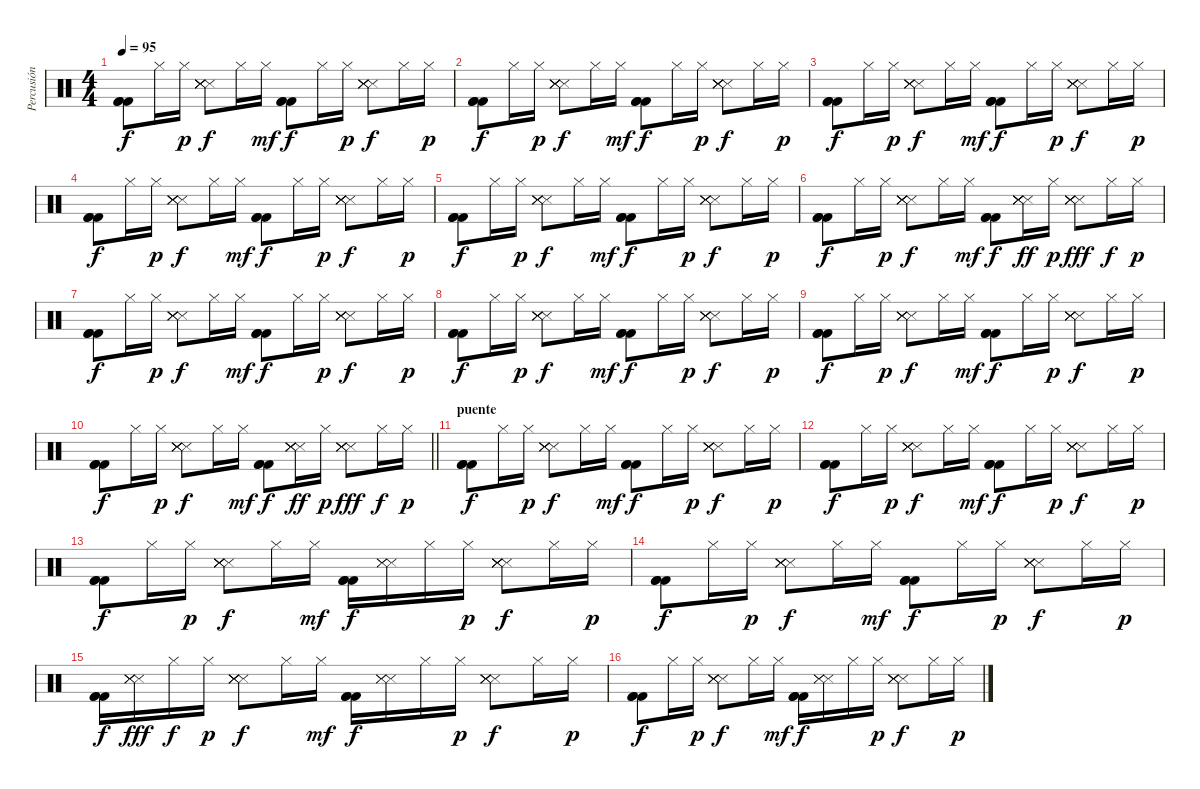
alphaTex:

\track ("Percusión" "Percusión") {instrument percussion}
\staff
\articulation defaults
\ts (4 4)
\tempo 95
\clef neutral
\ks c
("Kick (hit) 2" "Kick (hit) 2" "Kick (hit) 2").8{dy f} "Hi-Hat (closed)".16 "Hi-Hat (closed)".16{dy p} ("Metronome (hit)" "Metronome (hit)" "Metronome (hit)" "Metronome (hit)" "Metronome (hit)").8{dy f} "Hi-Hat (closed)".16 "Hi-Hat (closed)".16{dy mf} ("Kick (hit) 2" "Kick (hit) 2" "Kick (hit) 2").8{dy f} "Hi-Hat (closed)".16 "Hi-Hat (closed)".16{dy p} ("Metronome (hit)" "Metronome (hit)" "Metronome (hit)" "Metronome (hit)" "Metronome (hit)").8{dy f} "Hi-Hat (closed)".16 "Hi-Hat (closed)".16{dy p} |
("Kick (hit) 2" "Kick (hit) 2" "Kick (hit) 2").8{dy f} "Hi-Hat (closed)".16 "Hi-Hat (closed)".16{dy p} ("Metronome (hit)" "Metronome (hit)" "Metronome (hit)" "Metronome (hit)" "Metronome (hit)").8{dy f} "Hi-Hat (closed)".16 "Hi-Hat (closed)".16{dy mf} ("Kick (hit) 2" "Kick (hit) 2" "Kick (hit) 2").8{dy f} "Hi-Hat (closed)".16 "Hi-Hat (closed)".16{dy p} ("Metronome (hit)" "Metronome (hit)" "Metronome (hit)" "Metronome (hit)" "Metronome (hit)").8{dy f} "Hi-Hat (closed)".16 "Hi-Hat (closed)".16{dy p} |
("Kick (hit) 2" "Kick (hit) 2" "Kick (hit) 2").8{dy f} "Hi-Hat (closed)".16 "Hi-Hat (closed)".16{dy p} ("Metronome (hit)" "Metronome (hit)" "Metronome (hit)" "Metronome (hit)" "Metronome (hit)").8{dy f} "Hi-Hat (closed)".16 "Hi-Hat (closed)".16{dy mf} ("Kick (hit) 2" "Kick (hit) 2" "Kick (hit) 2").8{dy f} "Hi-Hat (closed)".16 "Hi-Hat (closed)".16{dy p} ("Metronome (hit)" "Metronome (hit)" "Metronome (hit)" "Metronome (hit)" "Metronome (hit)").8{dy f} "Hi-Hat (closed)".16 "Hi-Hat (closed)".16{dy p} |
("Kick (hit) 2" "Kick (hit) 2" "Kick (hit) 2").8{dy f} "Hi-Hat (closed)".16 "Hi-Hat (closed)".16{dy p} ("Metronome (hit)" "Metronome (hit)" "Metronome (hit)" "Metronome (hit)" "Metronome (hit)").8{dy f} "Hi-Hat (closed)".16 "Hi-Hat (closed)".16{dy mf} ("Kick (hit) 2" "Kick (hit) 2" "Kick (hit) 2").8{dy f} "Hi-Hat (closed)".16 "Hi-Hat (closed)".16{dy p} ("Metronome (hit)" "Metronome (hit)" "Metronome (hit)" "Metronome (hit)" "Metronome (hit)").8{dy f} "Hi-Hat (closed)".16 "Hi-Hat (closed)".16{dy p} |
("Kick (hit) 2" "Kick (hit) 2" "Kick (hit) 2").8{dy f} "Hi-Hat (closed)".16 "Hi-Hat (closed)".16{dy p} ("Metronome (hit)" "Metronome (hit)" "Metronome (hit)" "Metronome (hit)" "Metronome (hit)").8{dy f} "Hi-Hat (closed)".16 "Hi-Hat (closed)".16{dy mf} ("Kick (hit) 2" "Kick (hit) 2" "Kick (hit) 2").8{dy f} "Hi-Hat (closed)".16 "Hi-Hat (closed)".16{dy p} ("Metronome (hit)" "Metronome (hit)" "Metronome (hit)" "Metronome (hit)" "Metronome (hit)").8{dy f} "Hi-Hat (closed)".16 "Hi-Hat (closed)".16{dy p} |
("Kick (hit) 2" "Kick (hit) 2" "Kick (hit) 2").8{dy f} "Hi-Hat (closed)".16 "Hi-Hat (closed)".16{dy p} ("Metronome (hit)" "Metronome (hit)" "Metronome (hit)" "Metronome (hit)" "Metronome (hit)").8{dy f} "Hi-Hat (closed)".16 "Hi-Hat (closed)".16{dy mf} ("Kick (hit) 2" "Kick (hit) 2" "Kick (hit) 2").8{dy f} ("Metronome (hit)" "Metronome (hit)" "Metronome (hit)" "Metronome (hit)" "Metronome (hit)").16{dy ff} "Hi-Hat (closed)".16{dy p} ("Metronome (hit)" "Metronome (hit)" "Metronome (hit)" "Metronome (hit)" "Metronome (hit)").8{dy fff} "Hi-Hat (closed)".16{dy f} "Hi-Hat (closed)".16{dy p} |
("Kick (hit) 2" "Kick (hit) 2" "Kick (hit) 2").8{dy f} "Hi-Hat (closed)".16 "Hi-Hat (closed)".16{dy p} ("Metronome (hit)" "Metronome (hit)" "Metronome (hit)" "Metronome (hit)" "Metronome (hit)").8{dy f} "Hi-Hat (closed)".16 "Hi-Hat (closed)".16{dy mf} ("Kick (hit) 2" "Kick (hit) 2" "Kick (hit) 2").8{dy f} "Hi-Hat (closed)".16 "Hi-Hat (closed)".16{dy p} ("Metronome (hit)" "Metronome (hit)" "Metronome (hit)" "Metronome (hit)" "Metronome (hit)").8{dy f} "Hi-Hat (closed)".16 "Hi-Hat (closed)".16{dy p} |
("Kick (hit) 2" "Kick (hit) 2" "Kick (hit) 2").8{dy f} "Hi-Hat (closed)".16 "Hi-Hat (closed)".16{dy p} ("Metronome (hit)" "Metronome (hit)" "Metronome (hit)" "Metronome (hit)" "Metronome (hit)").8{dy f} "Hi-Hat (closed)".16 "Hi-Hat (closed)".16{dy mf} ("Kick (hit) 2" "Kick (hit) 2" "Kick (hit) 2").8{dy f} "Hi-Hat (closed)".16 "Hi-Hat (closed)".16{dy p} ("Metronome (hit)" "Metronome (hit)" "Metronome (hit)" "Metronome (hit)" "Metronome (hit)").8{dy f} "Hi-Hat (closed)".16 "Hi-Hat (closed)".16{dy p} |
("Kick (hit) 2" "Kick (hit) 2" "Kick (hit) 2").8{dy f} "Hi-Hat (closed)".16 "Hi-Hat (closed)".16{dy p} ("Metronome (hit)" "Metronome (hit)" "Metronome (hit)" "Metronome (hit)" "Metronome (hit)").8{dy f} "Hi-Hat (closed)".16 "Hi-Hat (closed)".16{dy mf} ("Kick (hit) 2" "Kick (hit) 2" "Kick (hit) 2").8{dy f} "Hi-Hat (closed)".16 "Hi-Hat (closed)".16{dy p} ("Metronome (hit)" "Metronome (hit)" "Metronome (hit)" "Metronome (hit)" "Metronome (hit)").8{dy f} "Hi-Hat (closed)".16 "Hi-Hat (closed)".16{dy p} |
\barLineRight lightlight
("Kick (hit) 2" "Kick (hit) 2" "Kick (hit) 2").8{dy f} "Hi-Hat (closed)".16 "Hi-Hat (closed)".16{dy p} ("Metronome (hit)" "Metronome (hit)" "Metronome (hit)" "Metronome (hit)" "Metronome (hit)").8{dy f} "Hi-Hat (closed)".16 "Hi-Hat (closed)".16{dy mf} ("Kick (hit) 2" "Kick (hit) 2" "Kick (hit) 2").8{dy f} ("Metronome (hit)" "Metronome (hit)" "Metronome (hit)" "Metronome (hit)" "Metronome (hit)").16{dy ff} "Hi-Hat (closed)".16{dy p} ("Metronome (hit)" "Metronome (hit)" "Metronome (hit)" "Metronome (hit)" "Metronome (hit)").8{dy fff} "Hi-Hat (closed)".16{dy f} "Hi-Hat (closed)".16{dy p} |
\section ("" "puente")
("Kick (hit) 2" "Kick (hit) 2" "Kick (hit) 2").8{dy f} "Hi-Hat (closed)".16 "Hi-Hat (closed)".16{dy p} ("Metronome (hit)" "Metronome (hit)" "Metronome (hit)" "Metronome (hit)" "Metronome (hit)").8{dy f} "Hi-Hat (closed)".16 "Hi-Hat (closed)".16{dy mf} ("Kick (hit) 2" "Kick (hit) 2" "Kick (hit) 2").8{dy f} "Hi-Hat (closed)".16 "Hi-Hat (closed)".16{dy p} ("Metronome (hit)" "Metronome (hit)" "Metronome (hit)" "Metronome (hit)" "Metronome (hit)").8{dy f} "Hi-Hat (closed)".16 "Hi-Hat (closed)".16{dy p} |
("Kick (hit) 2" "Kick (hit) 2" "Kick (hit) 2").8{dy f} "Hi-Hat (closed)".16 "Hi-Hat (closed)".16{dy p} ("Metronome (hit)" "Metronome (hit)" "Metronome (hit)" "Metronome (hit)" "Metronome (hit)").8{dy f} "Hi-Hat (closed)".16 "Hi-Hat (closed)".16{dy mf} ("Kick (hit) 2" "Kick (hit) 2" "Kick (hit) 2").8{dy f} "Hi-Hat (closed)".16 "Hi-Hat (closed)".16{dy p} ("Metronome (hit)" "Metronome (hit)" "Metronome (hit)" "Metronome (hit)" "Metronome (hit)").8{dy f} "Hi-Hat (closed)".16 "Hi-Hat (closed)".16{dy p} |
("Kick (hit) 2" "Kick (hit) 2" "Kick (hit) 2").8{dy f} "Hi-Hat (closed)".16 "Hi-Hat (closed)".16{dy p} ("Metronome (hit)" "Metronome (hit)" "Metronome (hit)" "Metronome (hit)" "Metronome (hit)").8{dy f} "Hi-Hat (closed)".16 "Hi-Hat (closed)".16{dy mf} ("Kick (hit) 2" "Kick (hit) 2" "Kick (hit) 2").16{dy f} ("Snare (side stick) 3" "Snare (side stick) 3" "Snare (side stick) 3").16 "Hi-Hat (closed)".16 "Hi-Hat (closed)".16{dy p} ("Snare (side stick) 3" "Snare (side stick) 3" "Snare (side stick) 3" "Snare (side stick) 3" "Snare (side stick) 3").8{dy f} "Hi-Hat (closed)".16 "Hi-Hat (closed)".16{dy p} |
("Kick (hit) 2" "Kick (hit) 2" "Kick (hit) 2").8{dy f} "Hi-Hat (closed)".16 "Hi-Hat (closed)".16{dy p} ("Metronome (hit)" "Metronome (hit)" "Metronome (hit)" "Metronome (hit)" "Metronome (hit)").8{dy f} "Hi-Hat (closed)".16 "Hi-Hat (closed)".16{dy mf} ("Kick (hit) 2" "Kick (hit) 2" "Kick (hit) 2").8{dy f} "Hi-Hat (closed)".16 "Hi-Hat (closed)".16{dy p} ("Metronome (hit)" "Metronome (hit)" "Metronome (hit)" "Metronome (hit)" "Metronome (hit)").8{dy f} "Hi-Hat (closed)".16 "Hi-Hat (closed)".16{dy p} |
("Kick (hit) 2" "Kick (hit) 2" "Kick (hit) 2").16{dy f} ("Snare (side stick) 3" "Snare (side stick) 3" "Snare (side stick) 3" "Snare (side stick) 3").16{dy fff} "Hi-Hat (closed)".16{dy f} "Hi-Hat (closed)".16{dy p} ("Metronome (hit)" "Metronome (hit)" "Metronome (hit)" "Metronome (hit)" "Metronome (hit)").8{dy f} "Hi-Hat (closed)".16 "Hi-Hat (closed)".16{dy mf} ("Kick (hit) 2" "Kick (hit) 2" "Kick (hit) 2").16{dy f} ("Snare (side stick) 3" "Snare (side stick) 3" "Snare (side stick) 3").16 "Hi-Hat (closed)".16 "Hi-Hat (closed)".16{dy p} ("Snare (side stick) 3" "Snare (side stick) 3" "Snare (side stick) 3" "Snare (side stick) 3" "Snare (side stick) 3").8{dy f} "Hi-Hat (closed)".16 "Hi-Hat (closed)".16{dy p} |
("Kick (hit) 2" "Kick (hit) 2" "Kick (hit) 2").8{dy f} "Hi-Hat (closed)".16 "Hi-Hat (closed)".16{dy p} ("Metronome (hit)" "Metronome (hit)" "Metronome (hit)" "Metronome (hit)" "Metronome (hit)").8{dy f} "Hi-Hat (closed)".16 "Hi-Hat (closed)".16{dy mf} ("Kick (hit) 2" "Kick (hit) 2" "Kick (hit) 2").16{dy f} ("Snare (side stick) 3" "Snare (side stick) 3" "Snare (side stick) 3").16 "Hi-Hat (closed)".16 "Hi-Hat (closed)".16{dy p} ("Snare (side stick) 3" "Snare (side stick) 3" "Snare (side stick) 3" "Snare (side stick) 3" "Snare (side stick) 3").8{dy f} "Hi-Hat (closed)".16 "Hi-Hat (closed)".16{dy p}
